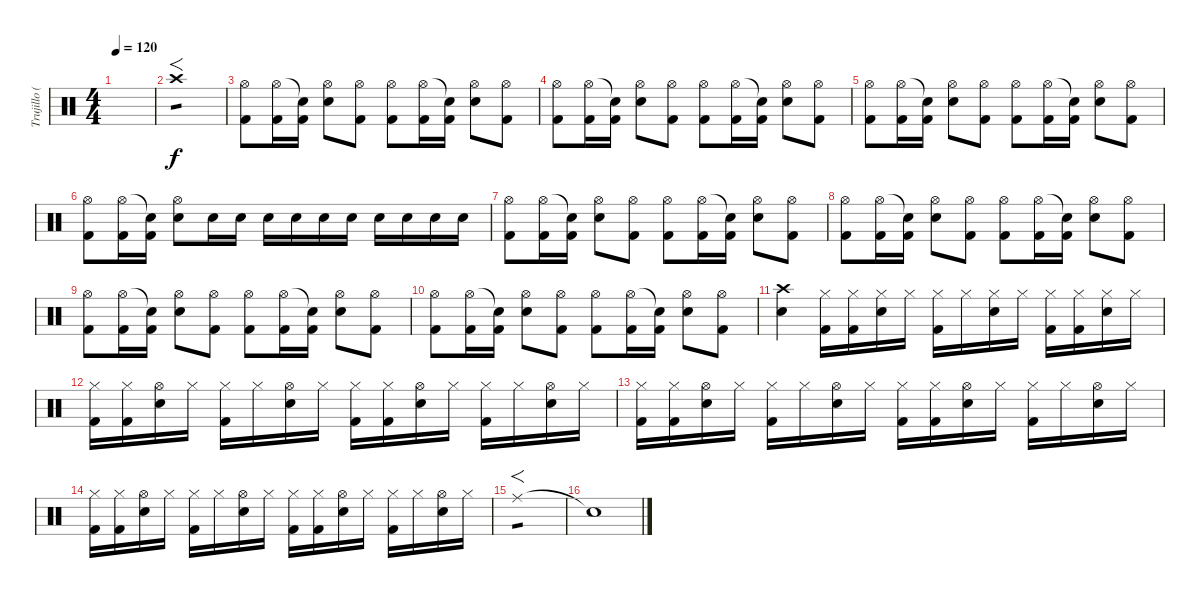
\track ("Trujillo (Percussion)" "Trujillo (") {instrument percussion}
\staff {score}
\articulation defaults
\ts (4 4)
\tempo 120
\clef neutral
\ks c
|
"Crash high (hit)".1{f tp 1} |
("Hi-Hat (open)" "Kick (hit) 2").8 ("Hi-Hat (open)" "Kick (hit) 2").16 ("Snare (hit)"{t} "Kick (hit) 2").16 ("Hi-Hat (open)" "Electric Snare (hit)").8 ("Hi-Hat (open)" "Kick (hit) 2").8 ("Hi-Hat (open)" "Kick (hit) 2").8 ("Hi-Hat (open)" "Kick (hit) 2").16 ("Snare (hit)"{t} "Kick (hit) 2").16 ("Hi-Hat (open)" "Electric Snare (hit)").8 ("Hi-Hat (open)" "Kick (hit) 2").8 |
("Hi-Hat (open)" "Kick (hit) 2").8 ("Hi-Hat (open)" "Kick (hit) 2").16 ("Snare (hit)"{t} "Kick (hit) 2").16 ("Hi-Hat (open)" "Electric Snare (hit)").8 ("Hi-Hat (open)" "Kick (hit) 2").8 ("Hi-Hat (open)" "Kick (hit) 2").8 ("Hi-Hat (open)" "Kick (hit) 2").16 ("Snare (hit)"{t} "Kick (hit) 2").16 ("Hi-Hat (open)" "Electric Snare (hit)").8 ("Hi-Hat (open)" "Kick (hit) 2").8 |
("Hi-Hat (open)" "Kick (hit) 2").8 ("Hi-Hat (open)" "Kick (hit) 2").16 ("Snare (hit)"{t} "Kick (hit) 2").16 ("Hi-Hat (open)" "Electric Snare (hit)").8 ("Hi-Hat (open)" "Kick (hit) 2").8 ("Hi-Hat (open)" "Kick (hit) 2").8 ("Hi-Hat (open)" "Kick (hit) 2").16 ("Snare (hit)"{t} "Kick (hit) 2").16 ("Hi-Hat (open)" "Electric Snare (hit)").8 ("Hi-Hat (open)" "Kick (hit) 2").8 |
("Hi-Hat (open)" "Kick (hit) 2").8 ("Hi-Hat (open)" "Kick (hit) 2").16 ("Snare (hit)"{t} "Kick (hit) 2").16 ("Hi-Hat (open)" "Electric Snare (hit)").8 "Electric Snare (hit)".16 "Electric Snare (hit)".16 "Electric Snare (hit)".16 "Electric Snare (hit)".16 "Electric Snare (hit)".16 "Electric Snare (hit)".16 "Electric Snare (hit)".16 "Electric Snare (hit)".16 "Electric Snare (hit)".16 "Electric Snare (hit)".16 |
("Hi-Hat (open)" "Kick (hit) 2").8 ("Hi-Hat (open)" "Kick (hit) 2").16 ("Snare (hit)"{t} "Kick (hit) 2").16 ("Hi-Hat (open)" "Electric Snare (hit)").8 ("Hi-Hat (open)" "Kick (hit) 2").8 ("Hi-Hat (open)" "Kick (hit) 2").8 ("Hi-Hat (open)" "Kick (hit) 2").16 ("Snare (hit)"{t} "Kick (hit) 2").16 ("Hi-Hat (open)" "Electric Snare (hit)").8 ("Hi-Hat (open)" "Kick (hit) 2").8 |
("Hi-Hat (open)" "Kick (hit) 2").8 ("Hi-Hat (open)" "Kick (hit) 2").16 ("Snare (hit)"{t} "Kick (hit) 2").16 ("Hi-Hat (open)" "Electric Snare (hit)").8 ("Hi-Hat (open)" "Kick (hit) 2").8 ("Hi-Hat (open)" "Kick (hit) 2").8 ("Hi-Hat (open)" "Kick (hit) 2").16 ("Snare (hit)"{t} "Kick (hit) 2").16 ("Hi-Hat (open)" "Electric Snare (hit)").8 ("Hi-Hat (open)" "Kick (hit) 2").8 |
("Hi-Hat (open)" "Kick (hit) 2").8 ("Hi-Hat (open)" "Kick (hit) 2").16 ("Snare (hit)"{t} "Kick (hit) 2").16 ("Hi-Hat (open)" "Electric Snare (hit)").8 ("Hi-Hat (open)" "Kick (hit) 2").8 ("Hi-Hat (open)" "Kick (hit) 2").8 ("Hi-Hat (open)" "Kick (hit) 2").16 ("Snare (hit)"{t} "Kick (hit) 2").16 ("Hi-Hat (open)" "Electric Snare (hit)").8 ("Hi-Hat (open)" "Kick (hit) 2").8 |
("Hi-Hat (open)" "Kick (hit) 2").8 ("Hi-Hat (open)" "Kick (hit) 2").16 ("Snare (hit)"{t} "Kick (hit) 2").16 ("Hi-Hat (open)" "Electric Snare (hit)").8 ("Hi-Hat (open)" "Kick (hit) 2").8 ("Hi-Hat (open)" "Kick (hit) 2").8 ("Hi-Hat (open)" "Kick (hit) 2").16 ("Snare (hit)"{t} "Kick (hit) 2").16 ("Hi-Hat (open)" "Electric Snare (hit)").8 ("Hi-Hat (open)" "Kick (hit) 2").8 |
("Crash high (hit)" "Electric Snare (hit)").4 ("Hi-Hat (closed)" "Kick (hit) 2").16 ("Hi-Hat (closed)" "Kick (hit) 2").16 ("Hi-Hat (closed)" "Electric Snare (hit)").16 "Hi-Hat (closed)".16 ("Hi-Hat (closed)" "Kick (hit) 2").16 "Hi-Hat (closed)".16 ("Hi-Hat (closed)" "Electric Snare (hit)").16 "Hi-Hat (closed)".16 ("Hi-Hat (closed)" "Kick (hit) 2").16 ("Hi-Hat (closed)" "Kick (hit) 2").16 ("Hi-Hat (closed)" "Electric Snare (hit)").16 "Hi-Hat (closed)".16 |
("Hi-Hat (closed)" "Kick (hit) 2").16 ("Hi-Hat (closed)" "Kick (hit) 2").16 ("Hi-Hat (open)" "Electric Snare (hit)").16 "Hi-Hat (closed)".16 ("Hi-Hat (closed)" "Kick (hit) 2").16 "Hi-Hat (closed)".16 ("Hi-Hat (open)" "Electric Snare (hit)").16 "Hi-Hat (closed)".16 ("Hi-Hat (closed)" "Kick (hit) 2").16 ("Hi-Hat (closed)" "Kick (hit) 2").16 ("Hi-Hat (open)" "Electric Snare (hit)").16 "Hi-Hat (closed)".16 ("Hi-Hat (closed)" "Kick (hit) 2").16 "Hi-Hat (closed)".16 ("Hi-Hat (open)" "Electric Snare (hit)").16 "Hi-Hat (closed)".16 |
("Hi-Hat (closed)" "Kick (hit) 2").16 ("Hi-Hat (closed)" "Kick (hit) 2").16 ("Hi-Hat (open)" "Electric Snare (hit)").16 "Hi-Hat (closed)".16 ("Hi-Hat (closed)" "Kick (hit) 2").16 "Hi-Hat (closed)".16 ("Hi-Hat (open)" "Electric Snare (hit)").16 "Hi-Hat (closed)".16 ("Hi-Hat (closed)" "Kick (hit) 2").16 ("Hi-Hat (closed)" "Kick (hit) 2").16 ("Hi-Hat (open)" "Electric Snare (hit)").16 "Hi-Hat (closed)".16 ("Hi-Hat (closed)" "Kick (hit) 2").16 "Hi-Hat (closed)".16 ("Hi-Hat (open)" "Electric Snare (hit)").16 "Hi-Hat (closed)".16 |
("Hi-Hat (closed)" "Kick (hit) 2").16 ("Hi-Hat (closed)" "Kick (hit) 2").16 ("Hi-Hat (open)" "Electric Snare (hit)").16 "Hi-Hat (closed)".16 ("Hi-Hat (closed)" "Kick (hit) 2").16 "Hi-Hat (closed)".16 ("Hi-Hat (open)" "Electric Snare (hit)").16 "Hi-Hat (closed)".16 ("Hi-Hat (closed)" "Kick (hit) 2").16 ("Hi-Hat (closed)" "Kick (hit) 2").16 ("Hi-Hat (open)" "Electric Snare (hit)").16 "Hi-Hat (closed)".16 ("Hi-Hat (closed)" "Kick (hit) 2").16 "Hi-Hat (closed)".16 ("Hi-Hat (open)" "Electric Snare (hit)").16 "Hi-Hat (closed)".16 |
"Ride (middle)".1{f tp 1} |
"Snare (hit)"{t}.1
